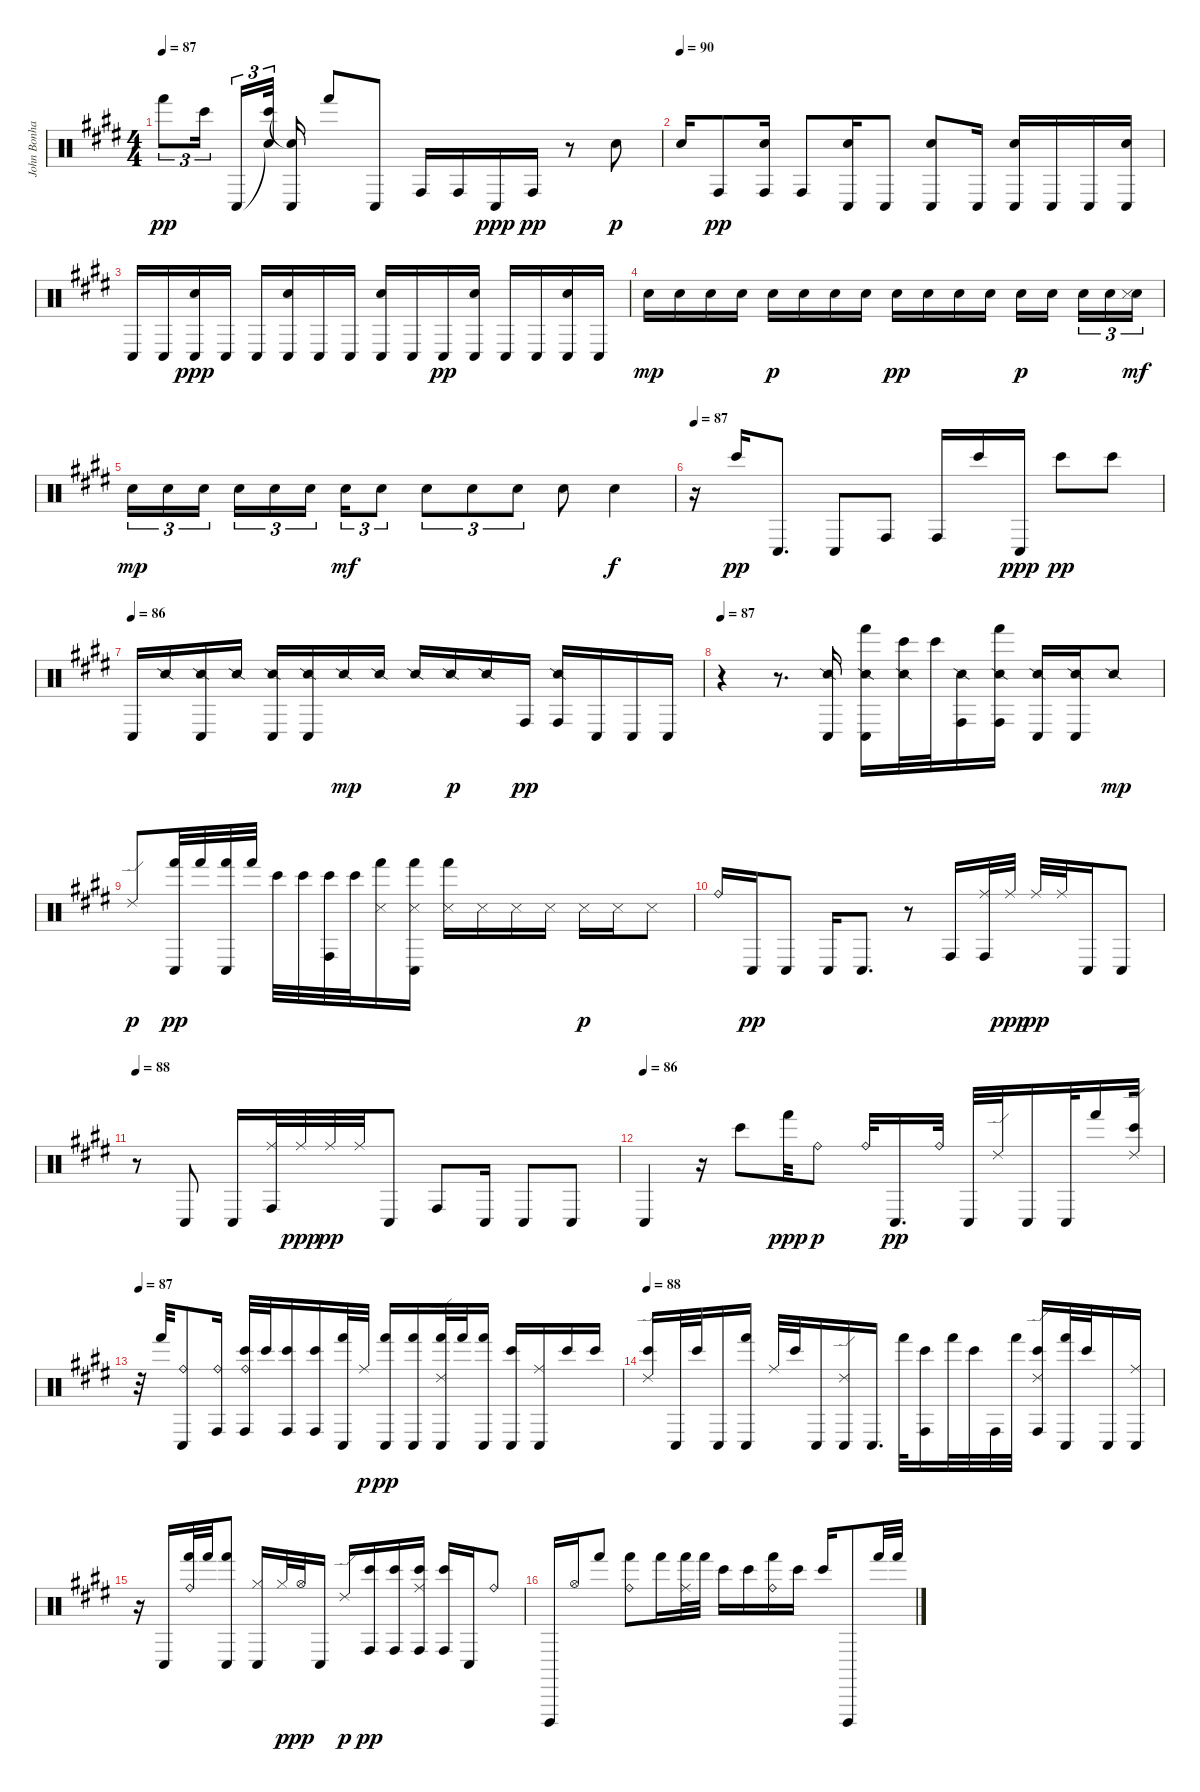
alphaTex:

\track ("John Bonham Percussion" "John Bonha") {instrument percussion}
\staff {score}
\articulation defaults
\ts (4 4)
\tempo 87
\clef neutral
\ks e "Hand (hit)".8{tu (3 2) dy pp} "Bongo High (hit)".16{tu (3 2) beam splitsecondary} "Conga low (hit)".16{tu (3 2)}
("Snare (hit)"{t} "Bongo High (hit)").32{tu (3 2) beam splitsecondary} ("Conga low (hit)" "Snare (hit)"{t}).16 "Hand (hit)".8 "Conga low (hit)".8 "Conga high (hit)".16 "Conga high (hit)".16 "Conga low (hit)".16{dy ppp} "Conga high (hit)".16{dy pp} r.8 "Snare (hit) 2".8{dy p} |
\tempo (90)
"Snare (hit) 2".16 "Conga high (hit)".8{dy pp} ("Snare (hit) 2" "Conga high (hit)").16 "Conga high (hit)".8 ("Snare (hit) 2" "Conga low (hit)").16 "Conga low (hit)".8 ("Snare (hit) 2" "Conga low (hit)").8 "Conga low (hit)".16 ("Snare (hit) 2" "Conga low (hit)").16 "Conga low (hit)".16 "Conga low (hit)".16 ("Snare (hit) 2" "Conga low (hit)").16 |
"Conga low (hit)".16 "Conga low (hit)".16 ("Snare (hit) 2" "Conga low (hit)").16{dy ppp} "Conga low (hit)".16 "Conga low (hit)".16 ("Snare (hit) 2" "Conga low (hit)").16 "Conga low (hit)".16 "Conga low (hit)".16 ("Snare (hit) 2" "Conga low (hit)").16 "Conga low (hit)".16 "Conga low (hit)".16{dy pp} ("Snare (hit) 2" "Conga low (hit)").16 "Conga low (hit)".16 "Conga low (hit)".16 ("Snare (hit) 2" "Conga low (hit)").16 "Conga low (hit)".16 |
"Snare (hit) 2".16{dy mp} "Snare (hit) 2".16 "Snare (hit) 2".16 "Snare (hit) 2".16 "Snare (hit) 2".16{dy p} "Snare (hit) 2".16 "Snare (hit) 2".16 "Snare (hit) 2".16 "Snare (hit) 2".16{dy pp} "Snare (hit) 2".16 "Snare (hit) 2".16 "Snare (hit) 2".16 "Snare (hit) 2".16{dy p} "Snare (hit) 2".16{beam splitsecondary} "Snare (hit) 2".16{tu (3 2)} "Snare (hit) 2".16{tu (3 2)} ("Snare (hit) 2" "Snare (side stick) 3").16{tu (3 2) dy mf} |
"Snare (hit) 2".16{tu (3 2) dy mp} "Snare (hit) 2".16{tu (3 2)} "Snare (hit) 2".16{tu (3 2) beam splitsecondary} "Snare (hit) 2".16{tu (3 2)} "Snare (hit) 2".16{tu (3 2)} "Snare (hit) 2".16{tu (3 2)} "Snare (hit) 2".16{tu (3 2) dy mf} "Snare (hit) 2".8{tu (3 2)} "Snare (hit) 2".8{tu (3 2)} "Snare (hit) 2".8{tu (3 2)} "Snare (hit) 2".8{tu (3 2)} "Snare (hit) 2".8 "Snare (hit) 2".4{dy f} |
\tempo 87
r.16 "Bongo High (hit)".16{dy pp} "Conga low (hit)".8{d} "Conga low (hit)".8 "Conga high (hit)".8 "Conga high (hit)".16 "Bongo High (hit)".16 "Conga low (hit)".16{dy ppp} "Bongo High (hit)".8{dy pp} "Bongo High (hit)".8 |
\tempo (86)
"Conga low (hit)".16 "Snare (side stick) 2".16 ("Snare (side stick) 2" "Conga low (hit)").16 "Snare (side stick) 2".16 ("Snare (side stick) 2" "Conga low (hit)").16 ("Snare (side stick) 2" "Conga low (hit)").16 "Snare (side stick) 2".16{dy mp} "Snare (side stick) 2".16 "Snare (side stick) 2".16 "Snare (side stick) 2".16{dy p} "Snare (side stick) 2".16 "Conga high (hit)".16{dy pp} ("Snare (side stick) 2" "Conga high (hit)").16 "Conga low (hit)".16 "Conga low (hit)".16 "Conga low (hit)".16 |
\tempo 87
r.4 r.8{d} ("Snare (side stick) 2" "Conga low (hit)").16 ("Snare (side stick) 2" "Conga low (hit)" "Hand (hit)").16 ("Snare (side stick) 2" "Bongo High (hit)").32 "Bongo High (hit)".32 ("Snare (side stick) 2" "Conga high (hit)").16 ("Snare (side stick) 2" "Conga high (hit)" "Hand (hit)").16 ("Snare (side stick) 2" "Conga low (hit)").16 ("Snare (side stick) 2" "Conga low (hit)").16 "Snare (side stick) 2".8{dy mp} |
"Ride (edge) 2".8{dy p} ("Conga low (hit)" "Hand (hit)").32{dy pp} "Hand (hit)".32 ("Conga low (hit)" "Hand (hit)").32 "Hand (hit)".32 "Bongo High (hit)".32 "Bongo High (hit)".32 ("Conga high (hit)" "Bongo High (hit)").32 "Bongo High (hit)".32 ("Snare (side stick) 3" "Hand (hit)").16 ("Snare (side stick) 3" "Conga low (hit)" "Hand (hit)").16 ("Snare (side stick) 3" "Hand (hit)").16 "Snare (side stick) 3".16 "Snare (side stick) 3".16 "Snare (side stick) 3".16 "Snare (side stick) 3".16{dy p} "Snare (side stick) 3".16 "Snare (side stick) 3".8 |
"Ride (bell)".16 "Conga low (hit)".16{dy pp} "Conga low (hit)".8 "Conga low (hit)".16 "Conga low (hit)".8{d} r.8 "Conga high (hit)".16 ("Ride (middle)" "Conga high (hit)").32 "Ride (middle)".32{dy ppp} "Ride (middle)".32{dy pp} "Ride (middle)".32 "Conga low (hit)".16 "Conga low (hit)".8 |
\tempo 88
r.8 "Conga low (hit)".8 "Conga low (hit)".16 ("Ride (middle)" "Conga high (hit)").32 "Ride (middle)".32{dy ppp} "Ride (middle)".32{dy pp} "Ride (middle)".32 "Conga low (hit)".8 "Conga high (hit)".8 "Conga low (hit)".16 "Conga low (hit)".8 "Conga low (hit)".8 |
\tempo (86)
"Conga low (hit)".4 r.16 "Bongo High (hit)".8 "Hand (hit)".32{dy ppp} "Ride (bell)".8{dy p} "Ride (bell)".32 "Conga low (hit)".16{d dy pp} "Ride (bell)".32 "Conga low (hit)".32 "Ride (edge) 2".32 "Conga low (hit)".16 "Conga low (hit)".32 "Hand (hit)".16 ("Ride (edge) 2" "Bongo High (hit)").32 |
\tempo 87
r.32 "Hand (hit)".32 ("Ride (bell)" "Conga low (hit)").8 ("Ride (bell)" "Conga high (hit)").16 ("Ride (bell)" "Conga high (hit)" "Bongo High (hit)").32 "Bongo High (hit)".32 ("Conga high (hit)" "Bongo High (hit)").16 ("Conga high (hit)" "Bongo High (hit)").16 ("Conga low (hit)" "Hand (hit)").32 "Ride (middle)".32{dy p} ("Conga low (hit)" "Hand (hit)").16{dy pp} ("Conga low (hit)" "Hand (hit)").16 ("Ride (edge) 2" "Conga low (hit)" "Hand (hit)").32 "Hand (hit)".32 ("Conga low (hit)" "Hand (hit)").16 ("Conga low (hit)" "Bongo High (hit)").16 ("Ride (middle)" "Conga low (hit)").16 "Bongo High (hit)".16 "Bongo High (hit)".16 |
\tempo 88
("Ride (edge) 2" "Bongo High (hit)").16 "Conga low (hit)".32 "Bongo High (hit)".32 "Conga low (hit)".16 ("Conga low (hit)" "Hand (hit)").16 "Ride (middle)".32 "Bongo High (hit)".32 "Conga low (hit)".16 ("Ride (edge) 2" "Conga low (hit)").16 "Conga low (hit)".16{d} "Hand (hit)".32 ("Conga high (hit)" "Bongo High (hit)").16 "Hand (hit)".32 "Bongo High (hit)".32 "Conga high (hit)".32 "Hand (hit)".32 ("Ride (edge) 2" "Conga high (hit)" "Bongo High (hit)").16 ("Conga low (hit)" "Hand (hit)").32 "Bongo High (hit)".32 "Conga low (hit)".16 ("Ride (middle)" "Conga low (hit)").16 |
r.16 "Conga low (hit)".16 ("Ride (bell)" "Hand (hit)").32 "Hand (hit)".32 ("Conga low (hit)" "Hand (hit)").8 ("Hi-Hat (closed)" "Conga low (hit)").16 "Hi-Hat (closed)".32{dy p} "Hi-Hat (open)".32{dy pp} "Conga low (hit)".16 "Ride (edge) 2".16{dy p} ("Conga high (hit)" "Bongo High (hit)").16{dy pp} ("Conga high (hit)" "Bongo High (hit)").16 ("Ride (middle)" "Conga high (hit)" "Bongo High (hit)").16 ("Conga high (hit)" "Bongo High (hit)").16 "Conga low (hit)".16 "Ride (bell)".8 |
"Cuica (open)".16 "Hi-Hat (open)".16 "Hand (hit)".8 ("Ride (bell)" "Hand (hit)").8 "Hand (hit)".16 ("Ride (middle)" "Hand (hit)").32 "Hand (hit)".32 "Bongo High (hit)".16 "Bongo High (hit)".16 ("Ride (bell)" "Hand (hit)").16 "Bongo High (hit)".16 "Bongo High (hit)".16 "Cuica (open)".8 "Hand (hit)".32 "Hand (hit)".32
